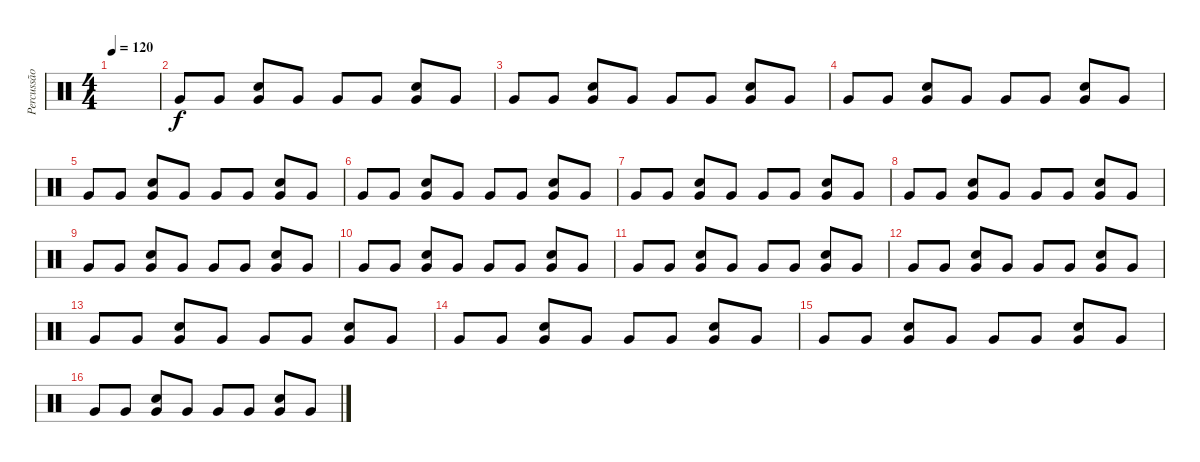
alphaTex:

\track ("Percussão" "Percussão") {instrument percussion}
\staff {score}
\articulation defaults
\ts (4 4)
\tempo 120
\clef neutral
\ks c
|
"Very Low Tom (hit)".8 "Very Low Tom (hit)".8 ("Very Low Tom (hit)" "Snare (hit) 2").8 "Very Low Tom (hit)".8 "Very Low Tom (hit)".8 "Very Low Tom (hit)".8 ("Very Low Tom (hit)" "Snare (hit) 2").8 "Very Low Tom (hit)".8 |
"Very Low Tom (hit)".8 "Very Low Tom (hit)".8 ("Very Low Tom (hit)" "Snare (hit) 2").8 "Very Low Tom (hit)".8 "Very Low Tom (hit)".8 "Very Low Tom (hit)".8 ("Very Low Tom (hit)" "Snare (hit) 2").8 "Very Low Tom (hit)".8 |
"Very Low Tom (hit)".8 "Very Low Tom (hit)".8 ("Very Low Tom (hit)" "Snare (hit) 2").8 "Very Low Tom (hit)".8 "Very Low Tom (hit)".8 "Very Low Tom (hit)".8 ("Very Low Tom (hit)" "Snare (hit) 2").8 "Very Low Tom (hit)".8 |
"Very Low Tom (hit)".8 "Very Low Tom (hit)".8 ("Very Low Tom (hit)" "Snare (hit) 2").8 "Very Low Tom (hit)".8 "Very Low Tom (hit)".8 "Very Low Tom (hit)".8 ("Very Low Tom (hit)" "Snare (hit) 2").8 "Very Low Tom (hit)".8 |
"Very Low Tom (hit)".8 "Very Low Tom (hit)".8 ("Very Low Tom (hit)" "Snare (hit) 2").8 "Very Low Tom (hit)".8 "Very Low Tom (hit)".8 "Very Low Tom (hit)".8 ("Very Low Tom (hit)" "Snare (hit) 2").8 "Very Low Tom (hit)".8 |
"Very Low Tom (hit)".8 "Very Low Tom (hit)".8 ("Very Low Tom (hit)" "Snare (hit) 2").8 "Very Low Tom (hit)".8 "Very Low Tom (hit)".8 "Very Low Tom (hit)".8 ("Very Low Tom (hit)" "Snare (hit) 2").8 "Very Low Tom (hit)".8 |
"Very Low Tom (hit)".8 "Very Low Tom (hit)".8 ("Very Low Tom (hit)" "Snare (hit) 2").8 "Very Low Tom (hit)".8 "Very Low Tom (hit)".8 "Very Low Tom (hit)".8 ("Very Low Tom (hit)" "Snare (hit) 2").8 "Very Low Tom (hit)".8 |
"Very Low Tom (hit)".8 "Very Low Tom (hit)".8 ("Very Low Tom (hit)" "Snare (hit) 2").8 "Very Low Tom (hit)".8 "Very Low Tom (hit)".8 "Very Low Tom (hit)".8 ("Very Low Tom (hit)" "Snare (hit) 2").8 "Very Low Tom (hit)".8 |
"Very Low Tom (hit)".8 "Very Low Tom (hit)".8 ("Very Low Tom (hit)" "Snare (hit) 2").8 "Very Low Tom (hit)".8 "Very Low Tom (hit)".8 "Very Low Tom (hit)".8 ("Very Low Tom (hit)" "Snare (hit) 2").8 "Very Low Tom (hit)".8 |
"Very Low Tom (hit)".8 "Very Low Tom (hit)".8 ("Very Low Tom (hit)" "Snare (hit) 2").8 "Very Low Tom (hit)".8 "Very Low Tom (hit)".8 "Very Low Tom (hit)".8 ("Very Low Tom (hit)" "Snare (hit) 2").8 "Very Low Tom (hit)".8 |
"Very Low Tom (hit)".8 "Very Low Tom (hit)".8 ("Very Low Tom (hit)" "Snare (hit) 2").8 "Very Low Tom (hit)".8 "Very Low Tom (hit)".8 "Very Low Tom (hit)".8 ("Very Low Tom (hit)" "Snare (hit) 2").8 "Very Low Tom (hit)".8 |
"Very Low Tom (hit)".8 "Very Low Tom (hit)".8 ("Very Low Tom (hit)" "Snare (hit) 2").8 "Very Low Tom (hit)".8 "Very Low Tom (hit)".8 "Very Low Tom (hit)".8 ("Very Low Tom (hit)" "Snare (hit) 2").8 "Very Low Tom (hit)".8 |
"Very Low Tom (hit)".8 "Very Low Tom (hit)".8 ("Very Low Tom (hit)" "Snare (hit) 2").8 "Very Low Tom (hit)".8 "Very Low Tom (hit)".8 "Very Low Tom (hit)".8 ("Very Low Tom (hit)" "Snare (hit) 2").8 "Very Low Tom (hit)".8 |
"Very Low Tom (hit)".8 "Very Low Tom (hit)".8 ("Very Low Tom (hit)" "Snare (hit) 2").8 "Very Low Tom (hit)".8 "Very Low Tom (hit)".8 "Very Low Tom (hit)".8 ("Very Low Tom (hit)" "Snare (hit) 2").8 "Very Low Tom (hit)".8 |
"Very Low Tom (hit)".8 "Very Low Tom (hit)".8 ("Very Low Tom (hit)" "Snare (hit) 2").8 "Very Low Tom (hit)".8 "Very Low Tom (hit)".8 "Very Low Tom (hit)".8 ("Very Low Tom (hit)" "Snare (hit) 2").8 "Very Low Tom (hit)".8
